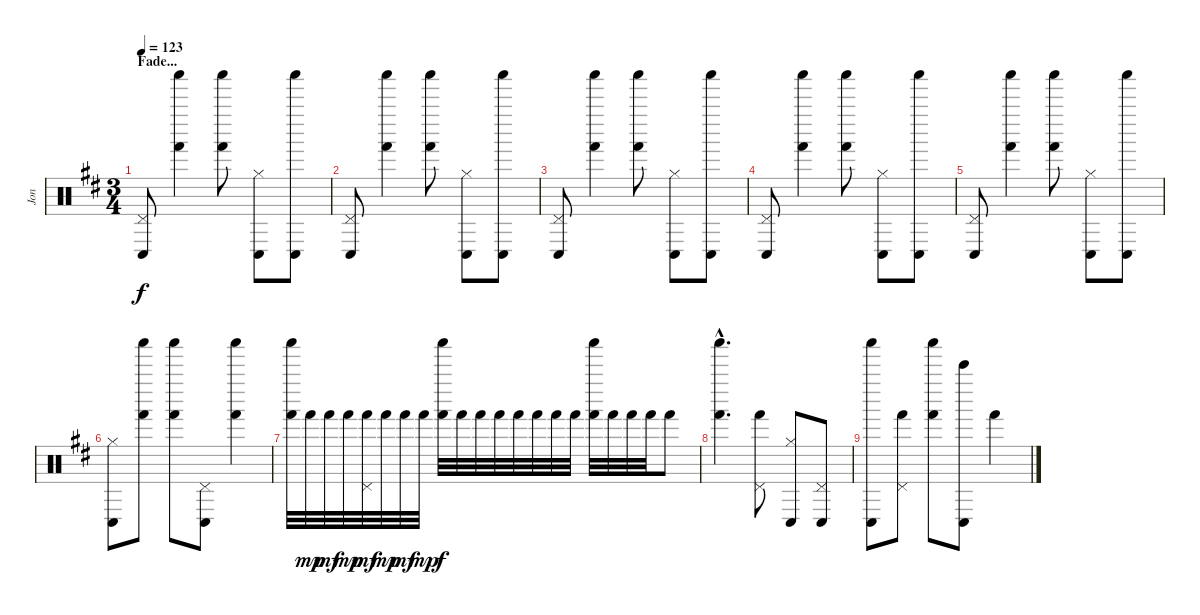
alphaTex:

\track ("Jon" "Jon") {instrument percussion}
\staff {score}
\articulation defaults
\ts (3 4)
\section ("" "Fade...")
\tempo 123
\clef neutral
\ks d
("Pedal Hi-Hat (hit)" "Conga low (hit)").8{dy f} ("Shaker (hit)" "Hand (hit)").4 ("Shaker (hit)" "Hand (hit)").8 ("Hi-Hat (closed)" "Conga low (hit)").8 ("Shaker (hit)" "Conga low (hit)").8 |
("Pedal Hi-Hat (hit)" "Conga low (hit)").8 ("Shaker (hit)" "Hand (hit)").4 ("Shaker (hit)" "Hand (hit)").8 ("Hi-Hat (closed)" "Conga low (hit)").8 ("Shaker (hit)" "Conga low (hit)").8 |
("Pedal Hi-Hat (hit)" "Conga low (hit)").8 ("Shaker (hit)" "Hand (hit)").4 ("Shaker (hit)" "Hand (hit)").8 ("Hi-Hat (closed)" "Conga low (hit)").8 ("Shaker (hit)" "Conga low (hit)").8 |
("Pedal Hi-Hat (hit)" "Conga low (hit)").8 ("Shaker (hit)" "Hand (hit)").4 ("Shaker (hit)" "Hand (hit)").8 ("Hi-Hat (closed)" "Conga low (hit)").8 ("Shaker (hit)" "Conga low (hit)").8 |
("Pedal Hi-Hat (hit)" "Conga low (hit)").8 ("Shaker (hit)" "Hand (hit)").4 ("Shaker (hit)" "Hand (hit)").8 ("Hi-Hat (closed)" "Conga low (hit)").8 ("Shaker (hit)" "Conga low (hit)").8 |
("Hi-Hat (closed)" "Conga low (hit)").8 ("Shaker (hit)" "Hand (hit)").8 ("Shaker (hit)" "Hand (hit)").8 ("Pedal Hi-Hat (hit)" "Conga low (hit)").8 ("Shaker (hit)" "Hand (hit)").4 |
("Shaker (hit)" "Hand (hit)").32 "Hand (hit)".32{dy mp} "Hand (hit)".32{dy mf} "Hand (hit)".32{dy mp} ("Pedal Hi-Hat (hit)" "Hand (hit)").32{dy mf} "Hand (hit)".32{dy mp} "Hand (hit)".32{dy mf} "Hand (hit)".32{dy mp} ("Shaker (hit)" "Hand (hit)").32{dy f} "Hand (hit)".32 "Hand (hit)".32 "Hand (hit)".32 "Hand (hit)".32 "Hand (hit)".32 "Hand (hit)".32 "Hand (hit)".32 ("Shaker (hit)" "Hand (hit)").32 "Hand (hit)".32 "Hand (hit)".32 "Hand (hit)".32 "Hand (hit)".8 |
("Shaker (hit)"{hac} "Hand (hit)"{hac}).4{d} ("Pedal Hi-Hat (hit)" "Hand (hit)").8 ("Hi-Hat (closed)" "Conga low (hit)").8 ("Pedal Hi-Hat (hit)" "Conga low (hit)").8 |
("Shaker (hit)" "Conga low (hit)").8 ("Pedal Hi-Hat (hit)" "Hand (hit)").8 ("Shaker (hit)" "Hand (hit)").8 ("Bell Tree (hit)" "Conga low (hit)").8 "Hand (hit)".4
